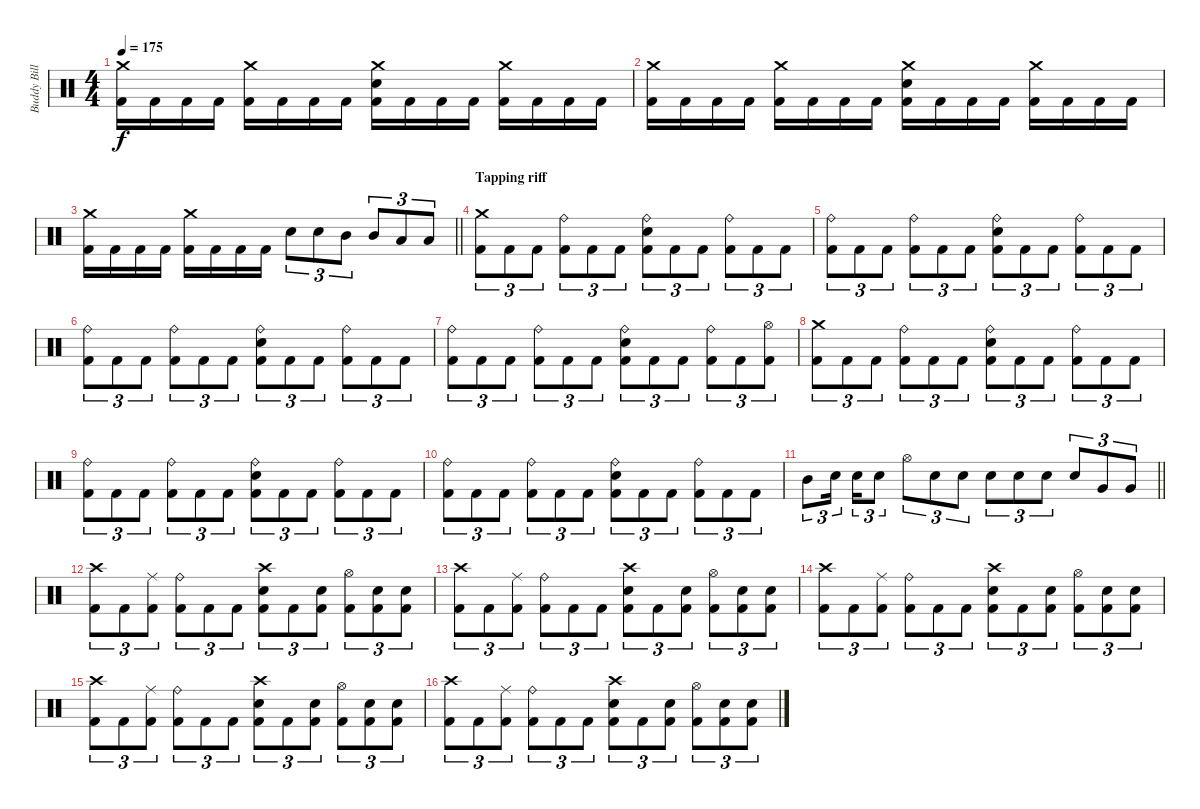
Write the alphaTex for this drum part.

\track ("Buddy Bill" "Buddy Bill") {instrument percussion}
\staff {score}
\articulation defaults
\ts (4 4)
\tempo 175
\clef neutral
\ks c
("Crash medium (hit)" "Kick (hit) 2").16{dy f} "Kick (hit) 2".16 "Kick (hit) 2".16 "Kick (hit) 2".16 ("Crash medium (hit)" "Kick (hit) 2").16 "Kick (hit) 2".16 "Kick (hit) 2".16 "Kick (hit) 2".16 ("Crash medium (hit)" "Snare (hit) 2" "Kick (hit) 2").16 "Kick (hit) 2".16 "Kick (hit) 2".16 "Kick (hit) 2".16 ("Crash medium (hit)" "Kick (hit) 2").16 "Kick (hit) 2".16 "Kick (hit) 2".16 "Kick (hit) 2".16 |
("Crash medium (hit)" "Kick (hit) 2").16 "Kick (hit) 2".16 "Kick (hit) 2".16 "Kick (hit) 2".16 ("Crash medium (hit)" "Kick (hit) 2").16 "Kick (hit) 2".16 "Kick (hit) 2".16 "Kick (hit) 2".16 ("Crash medium (hit)" "Snare (hit) 2" "Kick (hit) 2").16 "Kick (hit) 2".16 "Kick (hit) 2".16 "Kick (hit) 2".16 ("Crash medium (hit)" "Kick (hit) 2").16 "Kick (hit) 2".16 "Kick (hit) 2".16 "Kick (hit) 2".16 |
\barLineRight lightlight
("Crash medium (hit)" "Kick (hit) 2").16 "Kick (hit) 2".16 "Kick (hit) 2".16 "Kick (hit) 2".16 ("Crash medium (hit)" "Kick (hit) 2").16 "Kick (hit) 2".16 "Kick (hit) 2".16 "Kick (hit) 2".16 "Snare (hit) 2".8{tu (3 2)} "Snare (hit) 2".8{tu (3 2)} "Mid Tom (hit)".8{tu (3 2)} "Mid Tom (hit)".8{tu (3 2)} "Low Tom (hit)".8{tu (3 2)} "Low Tom (hit)".8{tu (3 2)} |
\section ("" "Tapping riff")
("Crash medium (hit)" "Kick (hit) 2").8{tu (3 2)} "Kick (hit) 2".8{tu (3 2)} "Kick (hit) 2".8{tu (3 2)} ("Ride (bell)" "Kick (hit) 2").8{tu (3 2)} "Kick (hit) 2".8{tu (3 2)} "Kick (hit) 2".8{tu (3 2)} ("Ride (bell)" "Snare (hit) 2" "Kick (hit) 2").8{tu (3 2)} "Kick (hit) 2".8{tu (3 2)} "Kick (hit) 2".8{tu (3 2)} ("Ride (bell)" "Kick (hit) 2").8{tu (3 2)} "Kick (hit) 2".8{tu (3 2)} "Kick (hit) 2".8{tu (3 2)} |
("Ride (bell)" "Kick (hit) 2").8{tu (3 2)} "Kick (hit) 2".8{tu (3 2)} "Kick (hit) 2".8{tu (3 2)} ("Ride (bell)" "Kick (hit) 2").8{tu (3 2)} "Kick (hit) 2".8{tu (3 2)} "Kick (hit) 2".8{tu (3 2)} ("Ride (bell)" "Snare (hit) 2" "Kick (hit) 2").8{tu (3 2)} "Kick (hit) 2".8{tu (3 2)} "Kick (hit) 2".8{tu (3 2)} ("Ride (bell)" "Kick (hit) 2").8{tu (3 2)} "Kick (hit) 2".8{tu (3 2)} "Kick (hit) 2".8{tu (3 2)} |
("Ride (bell)" "Kick (hit) 2").8{tu (3 2)} "Kick (hit) 2".8{tu (3 2)} "Kick (hit) 2".8{tu (3 2)} ("Ride (bell)" "Kick (hit) 2").8{tu (3 2)} "Kick (hit) 2".8{tu (3 2)} "Kick (hit) 2".8{tu (3 2)} ("Ride (bell)" "Snare (hit) 2" "Kick (hit) 2").8{tu (3 2)} "Kick (hit) 2".8{tu (3 2)} "Kick (hit) 2".8{tu (3 2)} ("Ride (bell)" "Kick (hit) 2").8{tu (3 2)} "Kick (hit) 2".8{tu (3 2)} "Kick (hit) 2".8{tu (3 2)} |
("Ride (bell)" "Kick (hit) 2").8{tu (3 2)} "Kick (hit) 2".8{tu (3 2)} "Kick (hit) 2".8{tu (3 2)} ("Ride (bell)" "Kick (hit) 2").8{tu (3 2)} "Kick (hit) 2".8{tu (3 2)} "Kick (hit) 2".8{tu (3 2)} ("Ride (bell)" "Snare (hit) 2" "Kick (hit) 2").8{tu (3 2)} "Kick (hit) 2".8{tu (3 2)} "Kick (hit) 2".8{tu (3 2)} ("Ride (bell)" "Kick (hit) 2").8{tu (3 2)} "Kick (hit) 2".8{tu (3 2)} ("Hi-Hat (open)" "Kick (hit) 2").8{tu (3 2)} |
("Crash medium (hit)" "Kick (hit) 2").8{tu (3 2)} "Kick (hit) 2".8{tu (3 2)} "Kick (hit) 2".8{tu (3 2)} ("Ride (bell)" "Kick (hit) 2").8{tu (3 2)} "Kick (hit) 2".8{tu (3 2)} "Kick (hit) 2".8{tu (3 2)} ("Ride (bell)" "Snare (hit) 2" "Kick (hit) 2").8{tu (3 2)} "Kick (hit) 2".8{tu (3 2)} "Kick (hit) 2".8{tu (3 2)} ("Ride (bell)" "Kick (hit) 2").8{tu (3 2)} "Kick (hit) 2".8{tu (3 2)} "Kick (hit) 2".8{tu (3 2)} |
("Ride (bell)" "Kick (hit) 2").8{tu (3 2)} "Kick (hit) 2".8{tu (3 2)} "Kick (hit) 2".8{tu (3 2)} ("Ride (bell)" "Kick (hit) 2").8{tu (3 2)} "Kick (hit) 2".8{tu (3 2)} "Kick (hit) 2".8{tu (3 2)} ("Ride (bell)" "Snare (hit) 2" "Kick (hit) 2").8{tu (3 2)} "Kick (hit) 2".8{tu (3 2)} "Kick (hit) 2".8{tu (3 2)} ("Ride (bell)" "Kick (hit) 2").8{tu (3 2)} "Kick (hit) 2".8{tu (3 2)} "Kick (hit) 2".8{tu (3 2)} |
("Ride (bell)" "Kick (hit) 2").8{tu (3 2)} "Kick (hit) 2".8{tu (3 2)} "Kick (hit) 2".8{tu (3 2)} ("Ride (bell)" "Kick (hit) 2").8{tu (3 2)} "Kick (hit) 2".8{tu (3 2)} "Kick (hit) 2".8{tu (3 2)} ("Ride (bell)" "Snare (hit) 2" "Kick (hit) 2").8{tu (3 2)} "Kick (hit) 2".8{tu (3 2)} "Kick (hit) 2".8{tu (3 2)} ("Ride (bell)" "Kick (hit) 2").8{tu (3 2)} "Kick (hit) 2".8{tu (3 2)} "Kick (hit) 2".8{tu (3 2)} |
\barLineRight lightlight "Mid Tom (hit)".8{tu (3 2)} "Snare (hit) 2".16{tu (3 2) beam splitsecondary} "Snare (hit) 2".16{tu (3 2)} "Snare (hit) 2".8{tu (3 2)} "Hi-Hat (open)".8{tu (3 2)} "Snare (hit) 2".8{tu (3 2)} "Snare (hit) 2".8{tu (3 2)} "Snare (hit) 2".8{tu (3 2)} "Snare (hit) 2".8{tu (3 2)} "Snare (hit) 2".8{tu (3 2)} "Snare (hit) 2".8{tu (3 2)} "Very Low Tom (hit)".8{tu (3 2)} "Very Low Tom (hit)".8{tu (3 2)}
|
\section ("" "")
("Crash high (hit)" "Kick (hit) 2").8{tu (3 2)} "Kick (hit) 2".8{tu (3 2)} ("Ride (middle)" "Kick (hit) 2").8{tu (3 2)} ("Ride (bell)" "Kick (hit) 2").8{tu (3 2)} "Kick (hit) 2".8{tu (3 2)} "Kick (hit) 2".8{tu (3 2)} ("Crash high (hit)" "Snare (hit) 2" "Kick (hit) 2").8{tu (3 2)} "Kick (hit) 2".8{tu (3 2)} ("Snare (hit) 2" "Kick (hit) 2").8{tu (3 2)} ("Hi-Hat (open)" "Kick (hit) 2").8{tu (3 2)} ("Snare (hit) 2" "Kick (hit) 2").8{tu (3 2)} ("Snare (hit) 2" "Kick (hit) 2").8{tu (3 2)} |
("Crash high (hit)" "Kick (hit) 2").8{tu (3 2)} "Kick (hit) 2".8{tu (3 2)} ("Ride (middle)" "Kick (hit) 2").8{tu (3 2)} ("Ride (bell)" "Kick (hit) 2").8{tu (3 2)} "Kick (hit) 2".8{tu (3 2)} "Kick (hit) 2".8{tu (3 2)} ("Crash high (hit)" "Snare (hit) 2" "Kick (hit) 2").8{tu (3 2)} "Kick (hit) 2".8{tu (3 2)} ("Snare (hit) 2" "Kick (hit) 2").8{tu (3 2)} ("Hi-Hat (open)" "Kick (hit) 2").8{tu (3 2)} ("Snare (hit) 2" "Kick (hit) 2").8{tu (3 2)} ("Snare (hit) 2" "Kick (hit) 2").8{tu (3 2)} |
("Crash high (hit)" "Kick (hit) 2").8{tu (3 2)} "Kick (hit) 2".8{tu (3 2)} ("Ride (middle)" "Kick (hit) 2").8{tu (3 2)} ("Ride (bell)" "Kick (hit) 2").8{tu (3 2)} "Kick (hit) 2".8{tu (3 2)} "Kick (hit) 2".8{tu (3 2)} ("Crash high (hit)" "Snare (hit) 2" "Kick (hit) 2").8{tu (3 2)} "Kick (hit) 2".8{tu (3 2)} ("Snare (hit) 2" "Kick (hit) 2").8{tu (3 2)} ("Hi-Hat (open)" "Kick (hit) 2").8{tu (3 2)} ("Snare (hit) 2" "Kick (hit) 2").8{tu (3 2)} ("Snare (hit) 2" "Kick (hit) 2").8{tu (3 2)} |
("Crash high (hit)" "Kick (hit) 2").8{tu (3 2)} "Kick (hit) 2".8{tu (3 2)} ("Ride (middle)" "Kick (hit) 2").8{tu (3 2)} ("Ride (bell)" "Kick (hit) 2").8{tu (3 2)} "Kick (hit) 2".8{tu (3 2)} "Kick (hit) 2".8{tu (3 2)} ("Crash high (hit)" "Snare (hit) 2" "Kick (hit) 2").8{tu (3 2)} "Kick (hit) 2".8{tu (3 2)} ("Snare (hit) 2" "Kick (hit) 2").8{tu (3 2)} ("Hi-Hat (open)" "Kick (hit) 2").8{tu (3 2)} ("Snare (hit) 2" "Kick (hit) 2").8{tu (3 2)} ("Snare (hit) 2" "Kick (hit) 2").8{tu (3 2)} |
("Crash high (hit)" "Kick (hit) 2").8{tu (3 2)} "Kick (hit) 2".8{tu (3 2)} ("Ride (middle)" "Kick (hit) 2").8{tu (3 2)} ("Ride (bell)" "Kick (hit) 2").8{tu (3 2)} "Kick (hit) 2".8{tu (3 2)} "Kick (hit) 2".8{tu (3 2)} ("Crash high (hit)" "Snare (hit) 2" "Kick (hit) 2").8{tu (3 2)} "Kick (hit) 2".8{tu (3 2)} ("Snare (hit) 2" "Kick (hit) 2").8{tu (3 2)} ("Hi-Hat (open)" "Kick (hit) 2").8{tu (3 2)} ("Snare (hit) 2" "Kick (hit) 2").8{tu (3 2)} ("Snare (hit) 2" "Kick (hit) 2").8{tu (3 2)}
